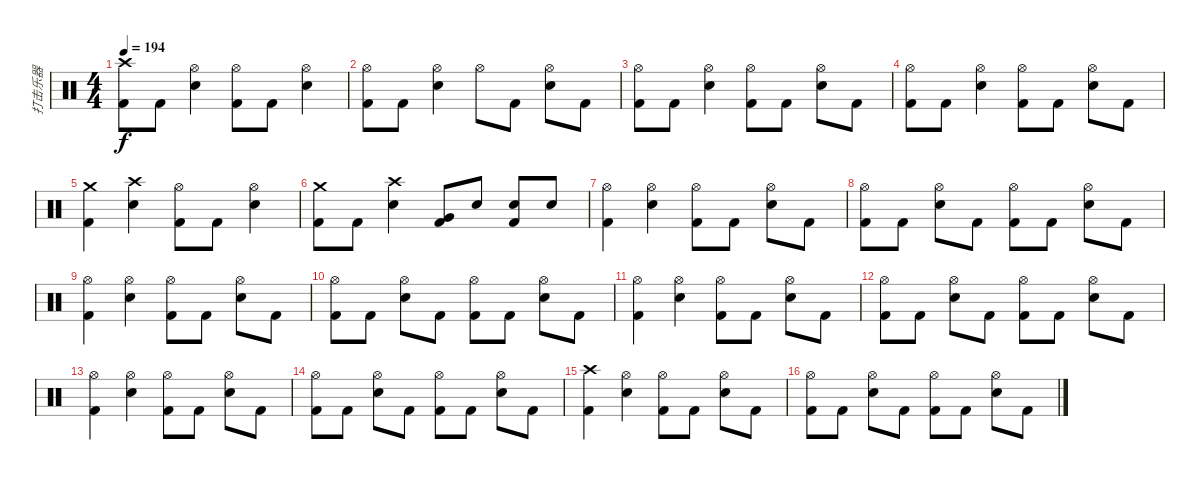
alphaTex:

\track ("打击乐器" "打击乐器") {instrument percussion}
\staff {score}
\articulation defaults
\ts (4 4)
\tempo 194
\clef neutral
\ks c
("Crash high (hit)" "Kick (hit) 2").8{dy f} "Kick (hit) 2".8 ("Hi-Hat (open)" "Electric Snare (hit)").4 ("Hi-Hat (open)" "Kick (hit) 2").8 "Kick (hit) 2".8 ("Hi-Hat (open)" "Electric Snare (hit)").4 |
("Hi-Hat (open)" "Kick (hit) 2").8 "Kick (hit) 2".8 ("Hi-Hat (open)" "Electric Snare (hit)").4 "Hi-Hat (open)".8 "Kick (hit) 2".8 ("Hi-Hat (open)" "Electric Snare (hit)").8 "Kick (hit) 2".8 |
("Hi-Hat (open)" "Kick (hit) 2").8 "Kick (hit) 2".8 ("Hi-Hat (open)" "Electric Snare (hit)").4 ("Hi-Hat (open)" "Kick (hit) 2").8 "Kick (hit) 2".8 ("Hi-Hat (open)" "Electric Snare (hit)").8 "Kick (hit) 2".8 |
("Hi-Hat (open)" "Kick (hit) 2").8 "Kick (hit) 2".8 ("Hi-Hat (open)" "Electric Snare (hit)").4 ("Hi-Hat (open)" "Kick (hit) 2").8 "Kick (hit) 2".8 ("Hi-Hat (open)" "Electric Snare (hit)").8 "Kick (hit) 2".8 |
("Crash medium (hit)" "Kick (hit) 2").4 ("Crash high (hit)" "Electric Snare (hit)").4 ("Hi-Hat (open)" "Kick (hit) 2").8 "Kick (hit) 2".8 ("Hi-Hat (open)" "Electric Snare (hit)").4 |
("Crash medium (hit)" "Kick (hit) 2").8 "Kick (hit) 2".8 ("Crash high (hit)" "Electric Snare (hit)").4 ("Very Low Tom (hit)" "Kick (hit) 2").8 "Electric Snare (hit)".8 ("Electric Snare (hit)" "Kick (hit) 2").8 "Electric Snare (hit)".8 |
("Hi-Hat (open)" "Kick (hit) 2").4 ("Hi-Hat (open)" "Electric Snare (hit)").4 ("Hi-Hat (open)" "Kick (hit) 2").8 "Kick (hit) 2".8 ("Hi-Hat (open)" "Electric Snare (hit)").8 "Kick (hit) 2".8 |
("Hi-Hat (open)" "Kick (hit) 2").8 "Kick (hit) 2".8 ("Hi-Hat (open)" "Electric Snare (hit)").8 "Kick (hit) 2".8 ("Hi-Hat (open)" "Kick (hit) 2").8 "Kick (hit) 2".8 ("Hi-Hat (open)" "Electric Snare (hit)").8 "Kick (hit) 2".8 |
("Hi-Hat (open)" "Kick (hit) 2").4 ("Hi-Hat (open)" "Electric Snare (hit)").4 ("Hi-Hat (open)" "Kick (hit) 2").8 "Kick (hit) 2".8 ("Hi-Hat (open)" "Electric Snare (hit)").8 "Kick (hit) 2".8 |
("Hi-Hat (open)" "Kick (hit) 2").8 "Kick (hit) 2".8 ("Hi-Hat (open)" "Electric Snare (hit)").8 "Kick (hit) 2".8 ("Hi-Hat (open)" "Kick (hit) 2").8 "Kick (hit) 2".8 ("Hi-Hat (open)" "Electric Snare (hit)").8 "Kick (hit) 2".8 |
("Hi-Hat (open)" "Kick (hit) 2").4 ("Hi-Hat (open)" "Electric Snare (hit)").4 ("Hi-Hat (open)" "Kick (hit) 2").8 "Kick (hit) 2".8 ("Hi-Hat (open)" "Electric Snare (hit)").8 "Kick (hit) 2".8 |
("Hi-Hat (open)" "Kick (hit) 2").8 "Kick (hit) 2".8 ("Hi-Hat (open)" "Electric Snare (hit)").8 "Kick (hit) 2".8 ("Hi-Hat (open)" "Kick (hit) 2").8 "Kick (hit) 2".8 ("Hi-Hat (open)" "Electric Snare (hit)").8 "Kick (hit) 2".8 |
("Hi-Hat (open)" "Kick (hit) 2").4 ("Hi-Hat (open)" "Electric Snare (hit)").4 ("Hi-Hat (open)" "Kick (hit) 2").8 "Kick (hit) 2".8 ("Hi-Hat (open)" "Electric Snare (hit)").8 "Kick (hit) 2".8 |
("Hi-Hat (open)" "Kick (hit) 2").8 "Kick (hit) 2".8 ("Hi-Hat (open)" "Electric Snare (hit)").8 "Kick (hit) 2".8 ("Hi-Hat (open)" "Kick (hit) 2").8 "Kick (hit) 2".8 ("Hi-Hat (open)" "Electric Snare (hit)").8 "Kick (hit) 2".8 |
("Crash high (hit)" "Kick (hit) 2").4 ("Hi-Hat (open)" "Electric Snare (hit)").4 ("Hi-Hat (open)" "Kick (hit) 2").8 "Kick (hit) 2".8 ("Hi-Hat (open)" "Electric Snare (hit)").8 "Kick (hit) 2".8 |
("Hi-Hat (open)" "Kick (hit) 2").8 "Kick (hit) 2".8 ("Hi-Hat (open)" "Electric Snare (hit)").8 "Kick (hit) 2".8 ("Hi-Hat (open)" "Kick (hit) 2").8 "Kick (hit) 2".8 ("Hi-Hat (open)" "Electric Snare (hit)").8 "Kick (hit) 2".8
